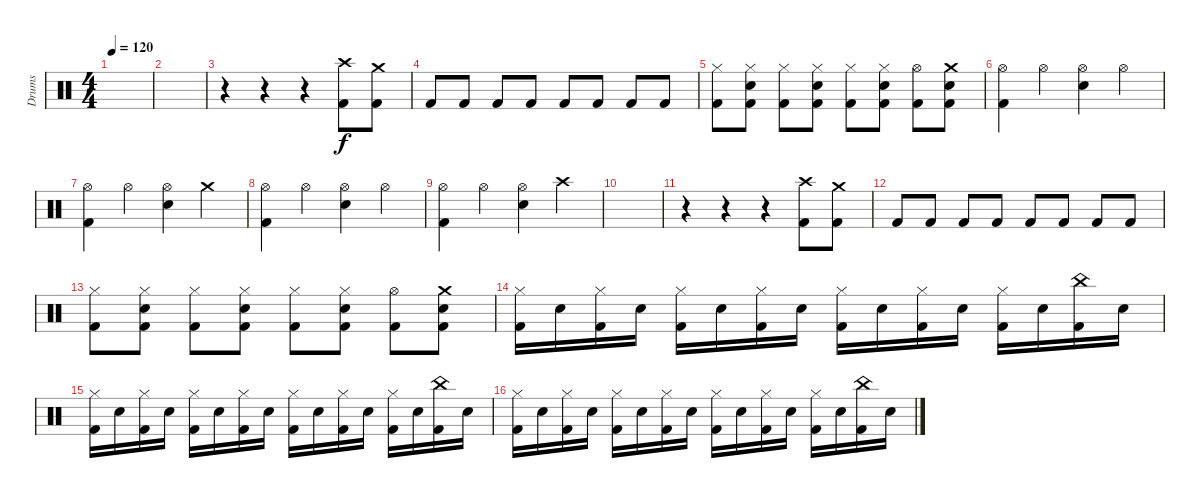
\track ("Drums" "Drums") {instrument percussion}
\staff {score}
\articulation defaults
\ts (4 4)
\tempo 120
\clef neutral
\ks c
|
|
r.4 r.4 r.4 ("Kick (hit) 2" "Crash high (hit)").8 ("Kick (hit) 2" "Crash medium (hit)").8 |
"Kick (hit) 2".8 "Kick (hit) 2".8 "Kick (hit) 2".8 "Kick (hit) 2".8 "Kick (hit) 2".8 "Kick (hit) 2".8 "Kick (hit) 2".8 "Kick (hit) 2".8 |
("Hi-Hat (closed)" "Kick (hit) 2").8 ("Hi-Hat (closed)" "Kick (hit) 2" "Snare (hit) 2").8 ("Hi-Hat (closed)" "Kick (hit) 2").8 ("Hi-Hat (closed)" "Kick (hit) 2" "Snare (hit) 2").8 ("Hi-Hat (closed)" "Kick (hit) 2").8 ("Hi-Hat (closed)" "Kick (hit) 2" "Snare (hit) 2").8 ("Hi-Hat (open)" "Kick (hit) 2").8 ("Crash medium (hit)" "Kick (hit) 2" "Snare (hit) 2").8 |
("Hi-Hat (open)" "Kick (hit) 2").4 "Hi-Hat (open)".4 ("Hi-Hat (open)" "Snare (hit) 2").4 "Hi-Hat (open)".4 |
("Hi-Hat (open)" "Kick (hit) 2").4 "Hi-Hat (open)".4 ("Hi-Hat (open)" "Snare (hit) 2").4 "Crash medium (hit)".4 |
("Hi-Hat (open)" "Kick (hit) 2").4 "Hi-Hat (open)".4 ("Hi-Hat (open)" "Snare (hit) 2").4 "Hi-Hat (open)".4 |
("Hi-Hat (open)" "Kick (hit) 2").4 "Hi-Hat (open)".4 ("Hi-Hat (open)" "Snare (hit) 2").4 "Crash high (hit)".4 |
|
r.4 r.4 r.4 ("Kick (hit) 2" "Crash high (hit)").8 ("Kick (hit) 2" "Crash medium (hit)").8 |
"Kick (hit) 2".8 "Kick (hit) 2".8 "Kick (hit) 2".8 "Kick (hit) 2".8 "Kick (hit) 2".8 "Kick (hit) 2".8 "Kick (hit) 2".8 "Kick (hit) 2".8 |
("Hi-Hat (closed)" "Kick (hit) 2").8 ("Hi-Hat (closed)" "Kick (hit) 2" "Snare (hit) 2").8 ("Hi-Hat (closed)" "Kick (hit) 2").8 ("Hi-Hat (closed)" "Kick (hit) 2" "Snare (hit) 2").8 ("Hi-Hat (closed)" "Kick (hit) 2").8 ("Hi-Hat (closed)" "Kick (hit) 2" "Snare (hit) 2").8 ("Hi-Hat (open)" "Kick (hit) 2").8 ("Crash medium (hit)" "Kick (hit) 2" "Snare (hit) 2").8 |
("Hi-Hat (closed)" "Kick (hit) 2").16 "Snare (hit) 2".16 ("Hi-Hat (closed)" "Kick (hit) 2").16 "Snare (hit) 2".16 ("Hi-Hat (closed)" "Kick (hit) 2").16 "Snare (hit) 2".16 ("Hi-Hat (closed)" "Kick (hit) 2").16 "Snare (hit) 2".16 ("Hi-Hat (closed)" "Kick (hit) 2").16 "Snare (hit) 2".16 ("Hi-Hat (closed)" "Kick (hit) 2").16 "Snare (hit) 2".16 ("Hi-Hat (closed)" "Kick (hit) 2").16 "Snare (hit) 2".16 ("China (hit)" "Kick (hit) 2").16 "Snare (hit) 2".16 |
("Hi-Hat (closed)" "Kick (hit) 2").16 "Snare (hit) 2".16 ("Hi-Hat (closed)" "Kick (hit) 2").16 "Snare (hit) 2".16 ("Hi-Hat (closed)" "Kick (hit) 2").16 "Snare (hit) 2".16 ("Hi-Hat (closed)" "Kick (hit) 2").16 "Snare (hit) 2".16 ("Hi-Hat (closed)" "Kick (hit) 2").16 "Snare (hit) 2".16 ("Hi-Hat (closed)" "Kick (hit) 2").16 "Snare (hit) 2".16 ("Hi-Hat (closed)" "Kick (hit) 2").16 "Snare (hit) 2".16 ("China (hit)" "Kick (hit) 2").16 "Snare (hit) 2".16 |
("Hi-Hat (closed)" "Kick (hit) 2").16 "Snare (hit) 2".16 ("Hi-Hat (closed)" "Kick (hit) 2").16 "Snare (hit) 2".16 ("Hi-Hat (closed)" "Kick (hit) 2").16 "Snare (hit) 2".16 ("Hi-Hat (closed)" "Kick (hit) 2").16 "Snare (hit) 2".16 ("Hi-Hat (closed)" "Kick (hit) 2").16 "Snare (hit) 2".16 ("Hi-Hat (closed)" "Kick (hit) 2").16 "Snare (hit) 2".16 ("Hi-Hat (closed)" "Kick (hit) 2").16 "Snare (hit) 2".16 ("China (hit)" "Kick (hit) 2").16 "Snare (hit) 2".16
